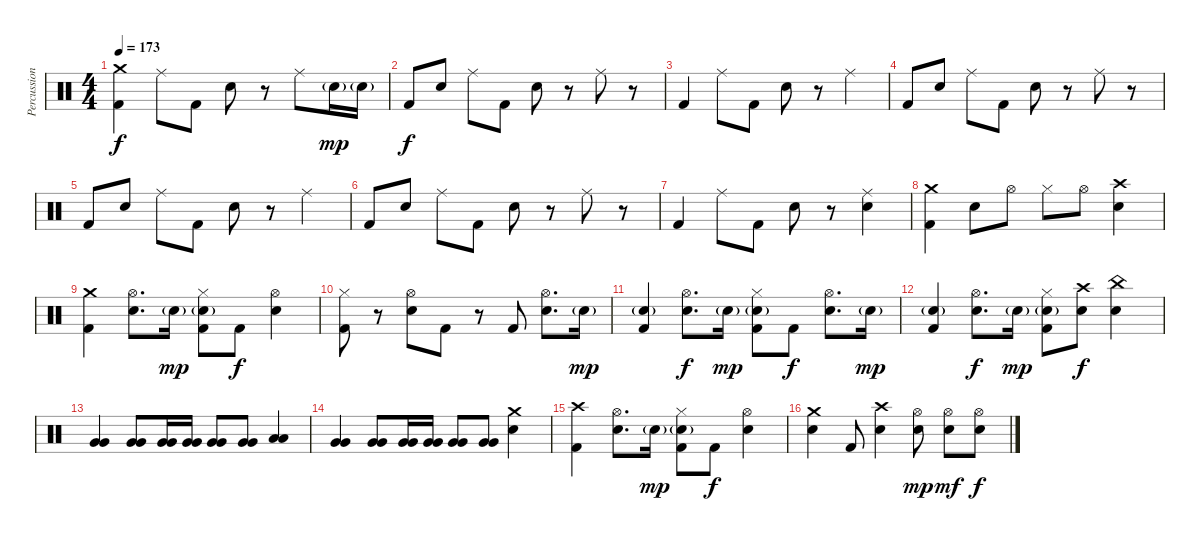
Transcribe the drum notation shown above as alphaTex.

\track ("Percussion" "Percussion") {instrument percussion}
\staff {score}
\articulation defaults
\ts (4 4)
\tempo 173
\clef neutral
\ks c
("Crash medium (hit)" "Kick (hit) 2").4{dy f} "Ride (middle)".8 "Kick (hit) 2".8 "Electric Snare (hit)".8 r.8 "Ride (middle)".8 "Electric Snare (hit)"{g}.16{dy mp} "Electric Snare (hit)"{g}.16 |
"Kick (hit) 2".8{dy f} "Electric Snare (hit)".8 "Ride (middle)".8 "Kick (hit) 2".8 "Electric Snare (hit)".8 r.8 "Ride (middle)".8 r.8 |
"Kick (hit) 2".4 "Ride (middle)".8 "Kick (hit) 2".8 "Electric Snare (hit)".8 r.8 "Ride (middle)".4 |
"Kick (hit) 2".8 "Electric Snare (hit)".8 "Ride (middle)".8 "Kick (hit) 2".8 "Electric Snare (hit)".8 r.8 "Ride (middle)".8 r.8 |
"Kick (hit) 2".8 "Electric Snare (hit)".8 "Ride (middle)".8 "Kick (hit) 2".8 "Electric Snare (hit)".8 r.8 "Ride (middle)".4 |
"Kick (hit) 2".8 "Electric Snare (hit)".8 "Ride (middle)".8 "Kick (hit) 2".8 "Electric Snare (hit)".8 r.8 "Ride (middle)".8 r.8 |
"Kick (hit) 2".4 "Ride (middle)".8 "Kick (hit) 2".8 "Electric Snare (hit)".8 r.8 ("Ride (middle)" "Electric Snare (hit)").4 |
("Crash medium (hit)" "Kick (hit) 2").4 "Electric Snare (hit)".8 "Hi-Hat (open)".8 "Hi-Hat (closed)".8 "Hi-Hat (open)".8 ("Crash high (hit)" "Electric Snare (hit)").4 |
("Crash medium (hit)" "Kick (hit) 2").4 ("Hi-Hat (open)" "Electric Snare (hit)").8{d} "Electric Snare (hit)"{g}.16{dy mp} ("Hi-Hat (closed)" "Electric Snare (hit)"{g} "Kick (hit) 2").8 "Kick (hit) 2".8{dy f} ("Hi-Hat (open)" "Electric Snare (hit)").4 |
("Hi-Hat (closed)" "Kick (hit) 2").8 r.8 ("Hi-Hat (open)" "Electric Snare (hit)").8 "Kick (hit) 2".8 r.8 "Kick (hit) 2".8 ("Hi-Hat (open)" "Electric Snare (hit)").8{d} "Electric Snare (hit)"{g}.16{dy mp} |
("Electric Snare (hit)"{g} "Kick (hit) 2").4 ("Hi-Hat (open)" "Electric Snare (hit)").8{d dy f} "Electric Snare (hit)"{g}.16{dy mp} ("Hi-Hat (closed)" "Electric Snare (hit)"{g} "Kick (hit) 2").8 "Kick (hit) 2".8{dy f} ("Hi-Hat (open)" "Electric Snare (hit)").8{d} "Electric Snare (hit)"{g}.16{dy mp} |
("Electric Snare (hit)"{g} "Kick (hit) 2").4 ("Hi-Hat (open)" "Electric Snare (hit)").8{d dy f} "Electric Snare (hit)"{g}.16{dy mp} ("Hi-Hat (closed)" "Electric Snare (hit)"{g} "Kick (hit) 2").8 ("Crash high (hit)" "Electric Snare (hit)").8{dy f} ("China (hit)" "Electric Snare (hit)").4 |
("Very Low Tom (hit)" "Very Low Tom (hit)").4 ("Very Low Tom (hit)" "Very Low Tom (hit)").8 ("Very Low Tom (hit)" "Very Low Tom (hit)").16 ("Very Low Tom (hit)" "Very Low Tom (hit)").16 ("Very Low Tom (hit)" "Very Low Tom (hit)").8 ("Very Low Tom (hit)" "Very Low Tom (hit)").8 ("Low Floor Tom (hit)" "Low Floor Tom (hit)").4 |
("Very Low Tom (hit)" "Very Low Tom (hit)").4 ("Very Low Tom (hit)" "Very Low Tom (hit)").8 ("Very Low Tom (hit)" "Very Low Tom (hit)").16 ("Very Low Tom (hit)" "Very Low Tom (hit)").16 ("Very Low Tom (hit)" "Very Low Tom (hit)").8 ("Very Low Tom (hit)" "Very Low Tom (hit)").8 ("Crash medium (hit)" "Electric Snare (hit)").4 |
("Crash high (hit)" "Kick (hit) 2").4 ("Hi-Hat (open)" "Electric Snare (hit)").8{d} "Electric Snare (hit)"{g}.16{dy mp} ("Hi-Hat (closed)" "Electric Snare (hit)"{g} "Kick (hit) 2").8 "Kick (hit) 2".8{dy f} ("Hi-Hat (open)" "Electric Snare (hit)").4 |
("Crash medium (hit)" "Electric Snare (hit)").4 "Kick (hit) 2".8 ("Crash high (hit)" "Electric Snare (hit)").4 ("Hi-Hat (open)" "Electric Snare (hit)").8{dy mp} ("Hi-Hat (open)" "Electric Snare (hit)").8{dy mf} ("Hi-Hat (open)" "Electric Snare (hit)").8{dy f}
